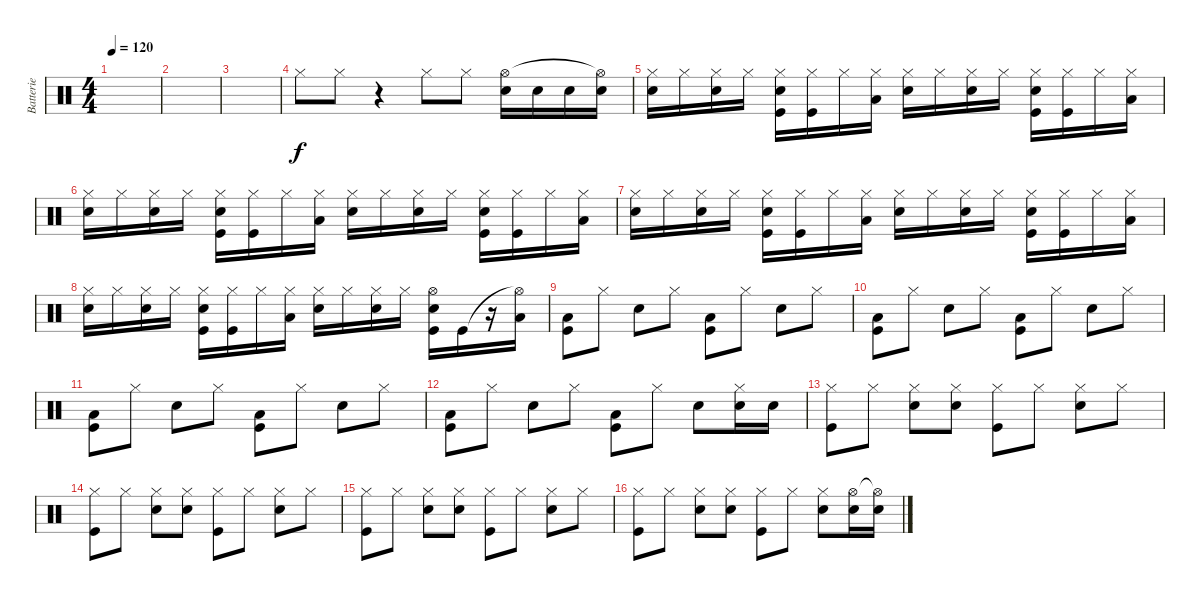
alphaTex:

\track ("Batterie" "Batterie") {instrument percussion}
\staff {score}
\articulation defaults
\ts (4 4)
\tempo 120
\clef neutral
\ks c
|
|
|
"Hi-Hat (closed)".8 "Hi-Hat (closed)".8 r.4 "Hi-Hat (closed)".8 "Hi-Hat (closed)".8 ("Snare (hit) 2" "Hi-Hat (open)").16 "Snare (hit) 2".16 "Snare (hit) 2".16 ("Snare (hit) 2" "Hi-Hat (open)"{t}).16 |
("Snare (hit) 2" "Hi-Hat (closed)").16 "Hi-Hat (closed)".16 ("Snare (hit) 2" "Hi-Hat (closed)").16 "Hi-Hat (closed)".16 ("Kick (hit)" "Snare (hit) 2" "Hi-Hat (closed)").16 ("Kick (hit)" "Hi-Hat (closed)").16 "Hi-Hat (closed)".16 ("Hi-Hat (closed)" "Low Floor Tom (hit)").16 ("Snare (hit) 2" "Hi-Hat (closed)").16 "Hi-Hat (closed)".16 ("Snare (hit) 2" "Hi-Hat (closed)").16 "Hi-Hat (closed)".16 ("Kick (hit)" "Snare (hit) 2" "Hi-Hat (closed)").16 ("Kick (hit)" "Hi-Hat (closed)").16 "Hi-Hat (closed)".16 ("Hi-Hat (closed)" "Low Floor Tom (hit)").16 |
("Snare (hit) 2" "Hi-Hat (closed)").16 "Hi-Hat (closed)".16 ("Snare (hit) 2" "Hi-Hat (closed)").16 "Hi-Hat (closed)".16 ("Kick (hit)" "Snare (hit) 2" "Hi-Hat (closed)").16 ("Kick (hit)" "Hi-Hat (closed)").16 "Hi-Hat (closed)".16 ("Hi-Hat (closed)" "Low Floor Tom (hit)").16 ("Snare (hit) 2" "Hi-Hat (closed)").16 "Hi-Hat (closed)".16 ("Snare (hit) 2" "Hi-Hat (closed)").16 "Hi-Hat (closed)".16 ("Kick (hit)" "Snare (hit) 2" "Hi-Hat (closed)").16 ("Kick (hit)" "Hi-Hat (closed)").16 "Hi-Hat (closed)".16 ("Hi-Hat (closed)" "Low Floor Tom (hit)").16 |
("Snare (hit) 2" "Hi-Hat (closed)").16 "Hi-Hat (closed)".16 ("Snare (hit) 2" "Hi-Hat (closed)").16 "Hi-Hat (closed)".16 ("Kick (hit)" "Snare (hit) 2" "Hi-Hat (closed)").16 ("Kick (hit)" "Hi-Hat (closed)").16 "Hi-Hat (closed)".16 ("Hi-Hat (closed)" "Low Floor Tom (hit)").16 ("Snare (hit) 2" "Hi-Hat (closed)").16 "Hi-Hat (closed)".16 ("Snare (hit) 2" "Hi-Hat (closed)").16 "Hi-Hat (closed)".16 ("Kick (hit)" "Snare (hit) 2" "Hi-Hat (closed)").16 ("Kick (hit)" "Hi-Hat (closed)").16 "Hi-Hat (closed)".16 ("Hi-Hat (closed)" "Low Floor Tom (hit)").16 |
("Snare (hit) 2" "Hi-Hat (closed)").16 "Hi-Hat (closed)".16 ("Snare (hit) 2" "Hi-Hat (closed)").16 "Hi-Hat (closed)".16 ("Kick (hit)" "Snare (hit) 2" "Hi-Hat (closed)").16 ("Kick (hit)" "Hi-Hat (closed)").16 "Hi-Hat (closed)".16 ("Hi-Hat (closed)" "Low Floor Tom (hit)").16 ("Snare (hit) 2" "Hi-Hat (closed)").16 "Hi-Hat (closed)".16 ("Snare (hit) 2" "Hi-Hat (closed)").16 "Hi-Hat (closed)".16 ("Kick (hit)" "Snare (hit) 2" "Hi-Hat (open)").16 "Kick (hit)".16 r.16 ("Hi-Hat (open)"{t} "Low Floor Tom (hit)").16 |
("Kick (hit)" "Low Floor Tom (hit)").8 "Hi-Hat (closed)".8 "Snare (hit) 2".8 "Hi-Hat (closed)".8 ("Kick (hit)" "Low Floor Tom (hit)").8 "Hi-Hat (closed)".8 "Snare (hit) 2".8 "Hi-Hat (closed)".8 |
("Kick (hit)" "Low Floor Tom (hit)").8 "Hi-Hat (closed)".8 "Snare (hit) 2".8 "Hi-Hat (closed)".8 ("Kick (hit)" "Low Floor Tom (hit)").8 "Hi-Hat (closed)".8 "Snare (hit) 2".8 "Hi-Hat (closed)".8 |
("Kick (hit)" "Low Floor Tom (hit)").8 "Hi-Hat (closed)".8 "Snare (hit) 2".8 "Hi-Hat (closed)".8 ("Kick (hit)" "Low Floor Tom (hit)").8 "Hi-Hat (closed)".8 "Snare (hit) 2".8 "Hi-Hat (closed)".8 |
("Kick (hit)" "Low Floor Tom (hit)").8 "Hi-Hat (closed)".8 "Snare (hit) 2".8 "Hi-Hat (closed)".8 ("Kick (hit)" "Low Floor Tom (hit)").8 "Hi-Hat (closed)".8 "Snare (hit) 2".8 ("Hi-Hat (closed)" "Snare (hit) 2").16 "Snare (hit) 2".16 |
("Hi-Hat (closed)" "Kick (hit)").8 "Hi-Hat (closed)".8 ("Hi-Hat (closed)" "Snare (hit) 2").8 ("Hi-Hat (closed)" "Snare (hit) 2").8 ("Hi-Hat (closed)" "Kick (hit)").8 "Hi-Hat (closed)".8 ("Hi-Hat (closed)" "Snare (hit) 2").8 "Hi-Hat (closed)".8 |
("Hi-Hat (closed)" "Kick (hit)").8 "Hi-Hat (closed)".8 ("Hi-Hat (closed)" "Snare (hit) 2").8 ("Hi-Hat (closed)" "Snare (hit) 2").8 ("Hi-Hat (closed)" "Kick (hit)").8 "Hi-Hat (closed)".8 ("Hi-Hat (closed)" "Snare (hit) 2").8 "Hi-Hat (closed)".8 |
("Hi-Hat (closed)" "Kick (hit)").8 "Hi-Hat (closed)".8 ("Hi-Hat (closed)" "Snare (hit) 2").8 ("Hi-Hat (closed)" "Snare (hit) 2").8 ("Hi-Hat (closed)" "Kick (hit)").8 "Hi-Hat (closed)".8 ("Hi-Hat (closed)" "Snare (hit) 2").8 "Hi-Hat (closed)".8 |
("Hi-Hat (closed)" "Kick (hit)").8 "Hi-Hat (closed)".8 ("Hi-Hat (closed)" "Snare (hit) 2").8 ("Hi-Hat (closed)" "Snare (hit) 2").8 ("Hi-Hat (closed)" "Kick (hit)").8 "Hi-Hat (closed)".8 ("Hi-Hat (closed)" "Snare (hit) 2").8 ("Snare (hit) 2" "Hi-Hat (open)").16 ("Snare (hit) 2" "Hi-Hat (open)"{t}).16
